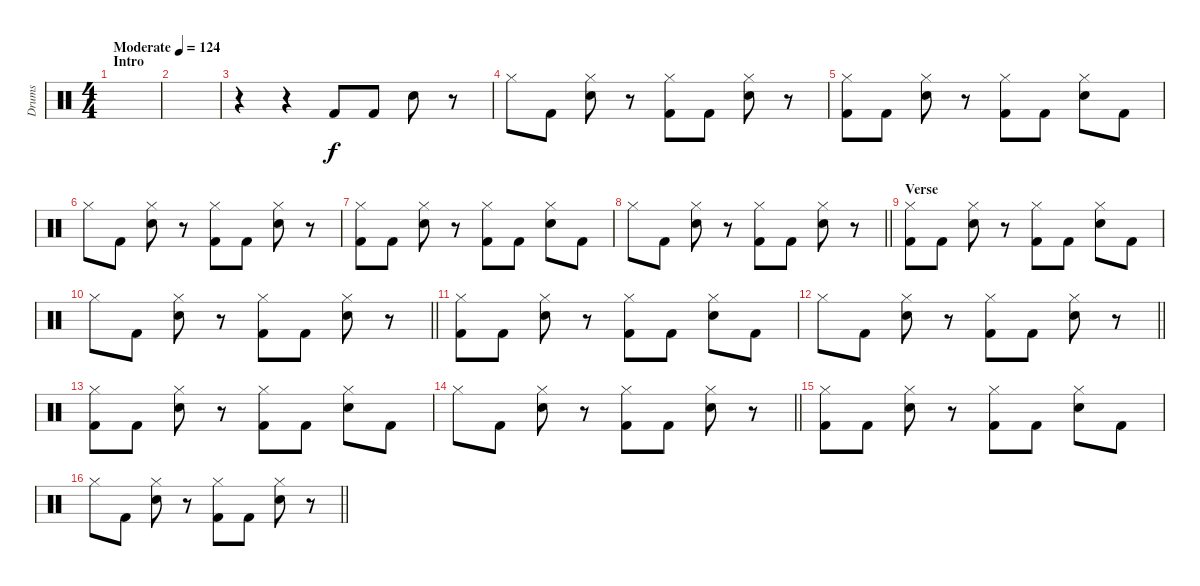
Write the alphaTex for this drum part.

\track ("Drums" "Drums") {instrument percussion}
\staff {score}
\articulation defaults
\ts (4 4)
\section ("" "Intro")
\tempo (124 "Moderate")
\clef neutral
\ks c
|
|
r.4 r.4 "Kick (hit) 2".8 "Kick (hit) 2".8 "Snare (hit) 2".8 r.8 |
"Hi-Hat (closed)".8 "Kick (hit) 2".8 ("Hi-Hat (closed)" "Snare (hit) 2").8 r.8 ("Hi-Hat (closed)" "Kick (hit) 2").8 "Kick (hit) 2".8 ("Hi-Hat (closed)" "Snare (hit) 2").8 r.8 |
("Hi-Hat (closed)" "Kick (hit) 2").8 "Kick (hit) 2".8 ("Hi-Hat (closed)" "Snare (hit) 2").8 r.8 ("Hi-Hat (closed)" "Kick (hit) 2").8 "Kick (hit) 2".8 ("Hi-Hat (closed)" "Snare (hit) 2").8 "Kick (hit) 2".8 |
"Hi-Hat (closed)".8 "Kick (hit) 2".8 ("Hi-Hat (closed)" "Snare (hit) 2").8 r.8 ("Hi-Hat (closed)" "Kick (hit) 2").8 "Kick (hit) 2".8 ("Hi-Hat (closed)" "Snare (hit) 2").8 r.8 |
("Hi-Hat (closed)" "Kick (hit) 2").8 "Kick (hit) 2".8 ("Hi-Hat (closed)" "Snare (hit) 2").8 r.8 ("Hi-Hat (closed)" "Kick (hit) 2").8 "Kick (hit) 2".8 ("Hi-Hat (closed)" "Snare (hit) 2").8 "Kick (hit) 2".8 |
\barLineRight lightlight "Hi-Hat (closed)".8 "Kick (hit) 2".8
("Hi-Hat (closed)" "Snare (hit) 2").8 r.8 ("Hi-Hat (closed)" "Kick (hit) 2").8 "Kick (hit) 2".8 ("Hi-Hat (closed)" "Snare (hit) 2").8 r.8 |
\section ("" "Verse")
("Hi-Hat (closed)" "Kick (hit) 2").8 "Kick (hit) 2".8 ("Hi-Hat (closed)" "Snare (hit) 2").8 r.8 ("Hi-Hat (closed)" "Kick (hit) 2").8 "Kick (hit) 2".8 ("Hi-Hat (closed)" "Snare (hit) 2").8 "Kick (hit) 2".8 |
\barLineRight lightlight "Hi-Hat (closed)".8 "Kick (hit) 2".8
("Hi-Hat (closed)" "Snare (hit) 2").8 r.8 ("Hi-Hat (closed)" "Kick (hit) 2").8 "Kick (hit) 2".8 ("Hi-Hat (closed)" "Snare (hit) 2").8 r.8 |
("Hi-Hat (closed)" "Kick (hit) 2").8 "Kick (hit) 2".8 ("Hi-Hat (closed)" "Snare (hit) 2").8 r.8 ("Hi-Hat (closed)" "Kick (hit) 2").8 "Kick (hit) 2".8 ("Hi-Hat (closed)" "Snare (hit) 2").8 "Kick (hit) 2".8 |
\barLineRight lightlight "Hi-Hat (closed)".8 "Kick (hit) 2".8
("Hi-Hat (closed)" "Snare (hit) 2").8 r.8 ("Hi-Hat (closed)" "Kick (hit) 2").8 "Kick (hit) 2".8 ("Hi-Hat (closed)" "Snare (hit) 2").8 r.8 |
("Hi-Hat (closed)" "Kick (hit) 2").8 "Kick (hit) 2".8 ("Hi-Hat (closed)" "Snare (hit) 2").8 r.8 ("Hi-Hat (closed)" "Kick (hit) 2").8 "Kick (hit) 2".8 ("Hi-Hat (closed)" "Snare (hit) 2").8 "Kick (hit) 2".8 |
\barLineRight lightlight "Hi-Hat (closed)".8 "Kick (hit) 2".8
("Hi-Hat (closed)" "Snare (hit) 2").8 r.8 ("Hi-Hat (closed)" "Kick (hit) 2").8 "Kick (hit) 2".8 ("Hi-Hat (closed)" "Snare (hit) 2").8 r.8 |
("Hi-Hat (closed)" "Kick (hit) 2").8 "Kick (hit) 2".8 ("Hi-Hat (closed)" "Snare (hit) 2").8 r.8 ("Hi-Hat (closed)" "Kick (hit) 2").8 "Kick (hit) 2".8 ("Hi-Hat (closed)" "Snare (hit) 2").8 "Kick (hit) 2".8 |
\barLineRight lightlight "Hi-Hat (closed)".8 "Kick (hit) 2".8
("Hi-Hat (closed)" "Snare (hit) 2").8 r.8 ("Hi-Hat (closed)" "Kick (hit) 2").8 "Kick (hit) 2".8 ("Hi-Hat (closed)" "Snare (hit) 2").8 r.8
